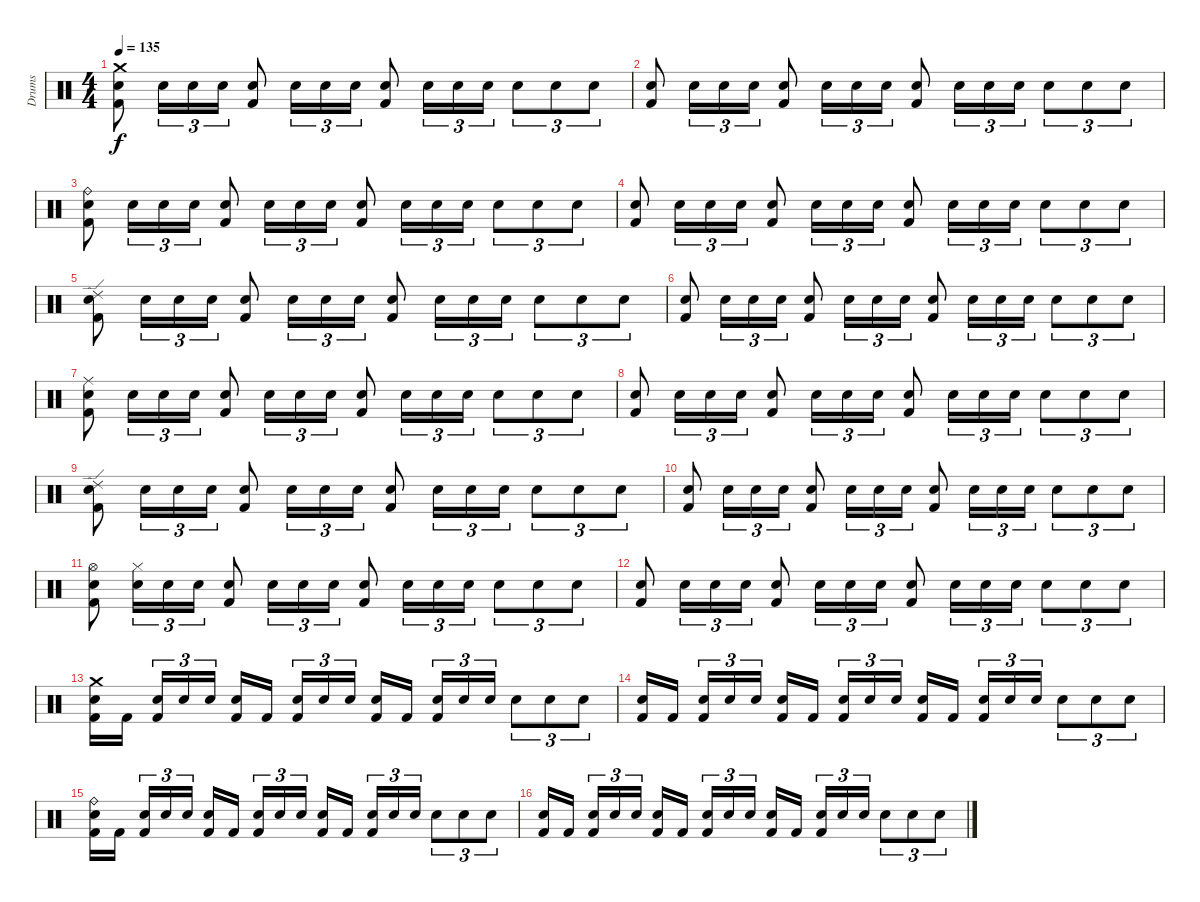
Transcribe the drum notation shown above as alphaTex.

\track ("Drums" "Drums") {instrument percussion}
\staff {score}
\articulation defaults
\ts (4 4)
\tempo 135
\clef neutral
\ks c
("Crash medium (hit)" "Electric Snare (hit)" "Kick (hit) 2").8{dy f} "Electric Snare (hit)".16{tu (3 2)} "Electric Snare (hit)".16{tu (3 2)} "Electric Snare (hit)".16{tu (3 2)} ("Electric Snare (hit)" "Kick (hit) 2").8 "Electric Snare (hit)".16{tu (3 2)} "Electric Snare (hit)".16{tu (3 2)} "Electric Snare (hit)".16{tu (3 2)} ("Electric Snare (hit)" "Kick (hit) 2").8 "Electric Snare (hit)".16{tu (3 2)} "Electric Snare (hit)".16{tu (3 2)} "Electric Snare (hit)".16{tu (3 2)} "Electric Snare (hit)".8{tu (3 2)} "Electric Snare (hit)".8{tu (3 2)} "Electric Snare (hit)".8{tu (3 2)} |
("Electric Snare (hit)" "Kick (hit) 2").8 "Electric Snare (hit)".16{tu (3 2)} "Electric Snare (hit)".16{tu (3 2)} "Electric Snare (hit)".16{tu (3 2)} ("Electric Snare (hit)" "Kick (hit) 2").8 "Electric Snare (hit)".16{tu (3 2)} "Electric Snare (hit)".16{tu (3 2)} "Electric Snare (hit)".16{tu (3 2)} ("Electric Snare (hit)" "Kick (hit) 2").8 "Electric Snare (hit)".16{tu (3 2)} "Electric Snare (hit)".16{tu (3 2)} "Electric Snare (hit)".16{tu (3 2)} "Electric Snare (hit)".8{tu (3 2)} "Electric Snare (hit)".8{tu (3 2)} "Electric Snare (hit)".8{tu (3 2)} |
("Ride (bell)" "Electric Snare (hit)" "Kick (hit) 2").8 "Electric Snare (hit)".16{tu (3 2)} "Electric Snare (hit)".16{tu (3 2)} "Electric Snare (hit)".16{tu (3 2)} ("Electric Snare (hit)" "Kick (hit) 2").8 "Electric Snare (hit)".16{tu (3 2)} "Electric Snare (hit)".16{tu (3 2)} "Electric Snare (hit)".16{tu (3 2)} ("Electric Snare (hit)" "Kick (hit) 2").8 "Electric Snare (hit)".16{tu (3 2)} "Electric Snare (hit)".16{tu (3 2)} "Electric Snare (hit)".16{tu (3 2)} "Electric Snare (hit)".8{tu (3 2)} "Electric Snare (hit)".8{tu (3 2)} "Electric Snare (hit)".8{tu (3 2)} |
("Electric Snare (hit)" "Kick (hit) 2").8 "Electric Snare (hit)".16{tu (3 2)} "Electric Snare (hit)".16{tu (3 2)} "Electric Snare (hit)".16{tu (3 2)} ("Electric Snare (hit)" "Kick (hit) 2").8 "Electric Snare (hit)".16{tu (3 2)} "Electric Snare (hit)".16{tu (3 2)} "Electric Snare (hit)".16{tu (3 2)} ("Electric Snare (hit)" "Kick (hit) 2").8 "Electric Snare (hit)".16{tu (3 2)} "Electric Snare (hit)".16{tu (3 2)} "Electric Snare (hit)".16{tu (3 2)} "Electric Snare (hit)".8{tu (3 2)} "Electric Snare (hit)".8{tu (3 2)} "Electric Snare (hit)".8{tu (3 2)} |
("Ride (edge) 2" "Electric Snare (hit)" "Kick (hit) 2").8 "Electric Snare (hit)".16{tu (3 2)} "Electric Snare (hit)".16{tu (3 2)} "Electric Snare (hit)".16{tu (3 2)} ("Electric Snare (hit)" "Kick (hit) 2").8 "Electric Snare (hit)".16{tu (3 2)} "Electric Snare (hit)".16{tu (3 2)} "Electric Snare (hit)".16{tu (3 2)} ("Electric Snare (hit)" "Kick (hit) 2").8 "Electric Snare (hit)".16{tu (3 2)} "Electric Snare (hit)".16{tu (3 2)} "Electric Snare (hit)".16{tu (3 2)} "Electric Snare (hit)".8{tu (3 2)} "Electric Snare (hit)".8{tu (3 2)} "Electric Snare (hit)".8{tu (3 2)} |
("Electric Snare (hit)" "Kick (hit) 2").8 "Electric Snare (hit)".16{tu (3 2)} "Electric Snare (hit)".16{tu (3 2)} "Electric Snare (hit)".16{tu (3 2)} ("Electric Snare (hit)" "Kick (hit) 2").8 "Electric Snare (hit)".16{tu (3 2)} "Electric Snare (hit)".16{tu (3 2)} "Electric Snare (hit)".16{tu (3 2)} ("Electric Snare (hit)" "Kick (hit) 2").8 "Electric Snare (hit)".16{tu (3 2)} "Electric Snare (hit)".16{tu (3 2)} "Electric Snare (hit)".16{tu (3 2)} "Electric Snare (hit)".8{tu (3 2)} "Electric Snare (hit)".8{tu (3 2)} "Electric Snare (hit)".8{tu (3 2)} |
("Ride (middle)" "Electric Snare (hit)" "Kick (hit) 2").8 "Electric Snare (hit)".16{tu (3 2)} "Electric Snare (hit)".16{tu (3 2)} "Electric Snare (hit)".16{tu (3 2)} ("Electric Snare (hit)" "Kick (hit) 2").8 "Electric Snare (hit)".16{tu (3 2)} "Electric Snare (hit)".16{tu (3 2)} "Electric Snare (hit)".16{tu (3 2)} ("Electric Snare (hit)" "Kick (hit) 2").8 "Electric Snare (hit)".16{tu (3 2)} "Electric Snare (hit)".16{tu (3 2)} "Electric Snare (hit)".16{tu (3 2)} "Electric Snare (hit)".8{tu (3 2)} "Electric Snare (hit)".8{tu (3 2)} "Electric Snare (hit)".8{tu (3 2)} |
("Electric Snare (hit)" "Kick (hit) 2").8 "Electric Snare (hit)".16{tu (3 2)} "Electric Snare (hit)".16{tu (3 2)} "Electric Snare (hit)".16{tu (3 2)} ("Electric Snare (hit)" "Kick (hit) 2").8 "Electric Snare (hit)".16{tu (3 2)} "Electric Snare (hit)".16{tu (3 2)} "Electric Snare (hit)".16{tu (3 2)} ("Electric Snare (hit)" "Kick (hit) 2").8 "Electric Snare (hit)".16{tu (3 2)} "Electric Snare (hit)".16{tu (3 2)} "Electric Snare (hit)".16{tu (3 2)} "Electric Snare (hit)".8{tu (3 2)} "Electric Snare (hit)".8{tu (3 2)} "Electric Snare (hit)".8{tu (3 2)} |
("Ride (edge) 2" "Electric Snare (hit)" "Kick (hit) 2").8 "Electric Snare (hit)".16{tu (3 2)} "Electric Snare (hit)".16{tu (3 2)} "Electric Snare (hit)".16{tu (3 2)} ("Electric Snare (hit)" "Kick (hit) 2").8 "Electric Snare (hit)".16{tu (3 2)} "Electric Snare (hit)".16{tu (3 2)} "Electric Snare (hit)".16{tu (3 2)} ("Electric Snare (hit)" "Kick (hit) 2").8 "Electric Snare (hit)".16{tu (3 2)} "Electric Snare (hit)".16{tu (3 2)} "Electric Snare (hit)".16{tu (3 2)} "Electric Snare (hit)".8{tu (3 2)} "Electric Snare (hit)".8{tu (3 2)} "Electric Snare (hit)".8{tu (3 2)} |
("Electric Snare (hit)" "Kick (hit) 2").8 "Electric Snare (hit)".16{tu (3 2)} "Electric Snare (hit)".16{tu (3 2)} "Electric Snare (hit)".16{tu (3 2)} ("Electric Snare (hit)" "Kick (hit) 2").8 "Electric Snare (hit)".16{tu (3 2)} "Electric Snare (hit)".16{tu (3 2)} "Electric Snare (hit)".16{tu (3 2)} ("Electric Snare (hit)" "Kick (hit) 2").8 "Electric Snare (hit)".16{tu (3 2)} "Electric Snare (hit)".16{tu (3 2)} "Electric Snare (hit)".16{tu (3 2)} "Electric Snare (hit)".8{tu (3 2)} "Electric Snare (hit)".8{tu (3 2)} "Electric Snare (hit)".8{tu (3 2)} |
("Hi-Hat (open)" "Electric Snare (hit)" "Kick (hit) 2").8 ("Hi-Hat (closed)" "Electric Snare (hit)").16{tu (3 2)} "Electric Snare (hit)".16{tu (3 2)} "Electric Snare (hit)".16{tu (3 2)} ("Electric Snare (hit)" "Kick (hit) 2").8 "Electric Snare (hit)".16{tu (3 2)} "Electric Snare (hit)".16{tu (3 2)} "Electric Snare (hit)".16{tu (3 2)} ("Electric Snare (hit)" "Kick (hit) 2").8 "Electric Snare (hit)".16{tu (3 2)} "Electric Snare (hit)".16{tu (3 2)} "Electric Snare (hit)".16{tu (3 2)} "Electric Snare (hit)".8{tu (3 2)} "Electric Snare (hit)".8{tu (3 2)} "Electric Snare (hit)".8{tu (3 2)} |
("Electric Snare (hit)" "Kick (hit) 2").8 "Electric Snare (hit)".16{tu (3 2)} "Electric Snare (hit)".16{tu (3 2)} "Electric Snare (hit)".16{tu (3 2)} ("Electric Snare (hit)" "Kick (hit) 2").8 "Electric Snare (hit)".16{tu (3 2)} "Electric Snare (hit)".16{tu (3 2)} "Electric Snare (hit)".16{tu (3 2)} ("Electric Snare (hit)" "Kick (hit) 2").8 "Electric Snare (hit)".16{tu (3 2)} "Electric Snare (hit)".16{tu (3 2)} "Electric Snare (hit)".16{tu (3 2)} "Electric Snare (hit)".8{tu (3 2)} "Electric Snare (hit)".8{tu (3 2)} "Electric Snare (hit)".8{tu (3 2)} |
("Crash medium (hit)" "Electric Snare (hit)" "Kick (hit) 2").16 "Kick (hit) 2".16{beam splitsecondary} ("Electric Snare (hit)" "Kick (hit) 2").16{tu (3 2)} "Electric Snare (hit)".16{tu (3 2)} "Electric Snare (hit)".16{tu (3 2)} ("Electric Snare (hit)" "Kick (hit) 2").16 "Kick (hit) 2".16{beam splitsecondary} ("Electric Snare (hit)" "Kick (hit) 2").16{tu (3 2)} "Electric Snare (hit)".16{tu (3 2)} "Electric Snare (hit)".16{tu (3 2)} ("Electric Snare (hit)" "Kick (hit) 2").16 "Kick (hit) 2".16{beam splitsecondary} ("Electric Snare (hit)" "Kick (hit) 2").16{tu (3 2)} "Electric Snare (hit)".16{tu (3 2)} "Electric Snare (hit)".16{tu (3 2)} "Electric Snare (hit)".8{tu (3 2)} "Electric Snare (hit)".8{tu (3 2)} "Electric Snare (hit)".8{tu (3 2)} |
("Electric Snare (hit)" "Kick (hit) 2").16 "Kick (hit) 2".16{beam splitsecondary} ("Electric Snare (hit)" "Kick (hit) 2").16{tu (3 2)} "Electric Snare (hit)".16{tu (3 2)} "Electric Snare (hit)".16{tu (3 2)} ("Electric Snare (hit)" "Kick (hit) 2").16 "Kick (hit) 2".16{beam splitsecondary} ("Electric Snare (hit)" "Kick (hit) 2").16{tu (3 2)} "Electric Snare (hit)".16{tu (3 2)} "Electric Snare (hit)".16{tu (3 2)} ("Electric Snare (hit)" "Kick (hit) 2").16 "Kick (hit) 2".16{beam splitsecondary} ("Electric Snare (hit)" "Kick (hit) 2").16{tu (3 2)} "Electric Snare (hit)".16{tu (3 2)} "Electric Snare (hit)".16{tu (3 2)} "Electric Snare (hit)".8{tu (3 2)} "Electric Snare (hit)".8{tu (3 2)} "Electric Snare (hit)".8{tu (3 2)} |
("Ride (bell)" "Electric Snare (hit)" "Kick (hit) 2").16 "Kick (hit) 2".16{beam splitsecondary} ("Electric Snare (hit)" "Kick (hit) 2").16{tu (3 2)} "Electric Snare (hit)".16{tu (3 2)} "Electric Snare (hit)".16{tu (3 2)} ("Electric Snare (hit)" "Kick (hit) 2").16 "Kick (hit) 2".16{beam splitsecondary} ("Electric Snare (hit)" "Kick (hit) 2").16{tu (3 2)} "Electric Snare (hit)".16{tu (3 2)} "Electric Snare (hit)".16{tu (3 2)} ("Electric Snare (hit)" "Kick (hit) 2").16 "Kick (hit) 2".16{beam splitsecondary} ("Electric Snare (hit)" "Kick (hit) 2").16{tu (3 2)} "Electric Snare (hit)".16{tu (3 2)} "Electric Snare (hit)".16{tu (3 2)} "Electric Snare (hit)".8{tu (3 2)} "Electric Snare (hit)".8{tu (3 2)} "Electric Snare (hit)".8{tu (3 2)} |
("Electric Snare (hit)" "Kick (hit) 2").16 "Kick (hit) 2".16{beam splitsecondary} ("Electric Snare (hit)" "Kick (hit) 2").16{tu (3 2)} "Electric Snare (hit)".16{tu (3 2)} "Electric Snare (hit)".16{tu (3 2)} ("Electric Snare (hit)" "Kick (hit) 2").16 "Kick (hit) 2".16{beam splitsecondary} ("Electric Snare (hit)" "Kick (hit) 2").16{tu (3 2)} "Electric Snare (hit)".16{tu (3 2)} "Electric Snare (hit)".16{tu (3 2)} ("Electric Snare (hit)" "Kick (hit) 2").16 "Kick (hit) 2".16{beam splitsecondary} ("Electric Snare (hit)" "Kick (hit) 2").16{tu (3 2)} "Electric Snare (hit)".16{tu (3 2)} "Electric Snare (hit)".16{tu (3 2)} "Electric Snare (hit)".8{tu (3 2)} "Electric Snare (hit)".8{tu (3 2)} "Electric Snare (hit)".8{tu (3 2)}
